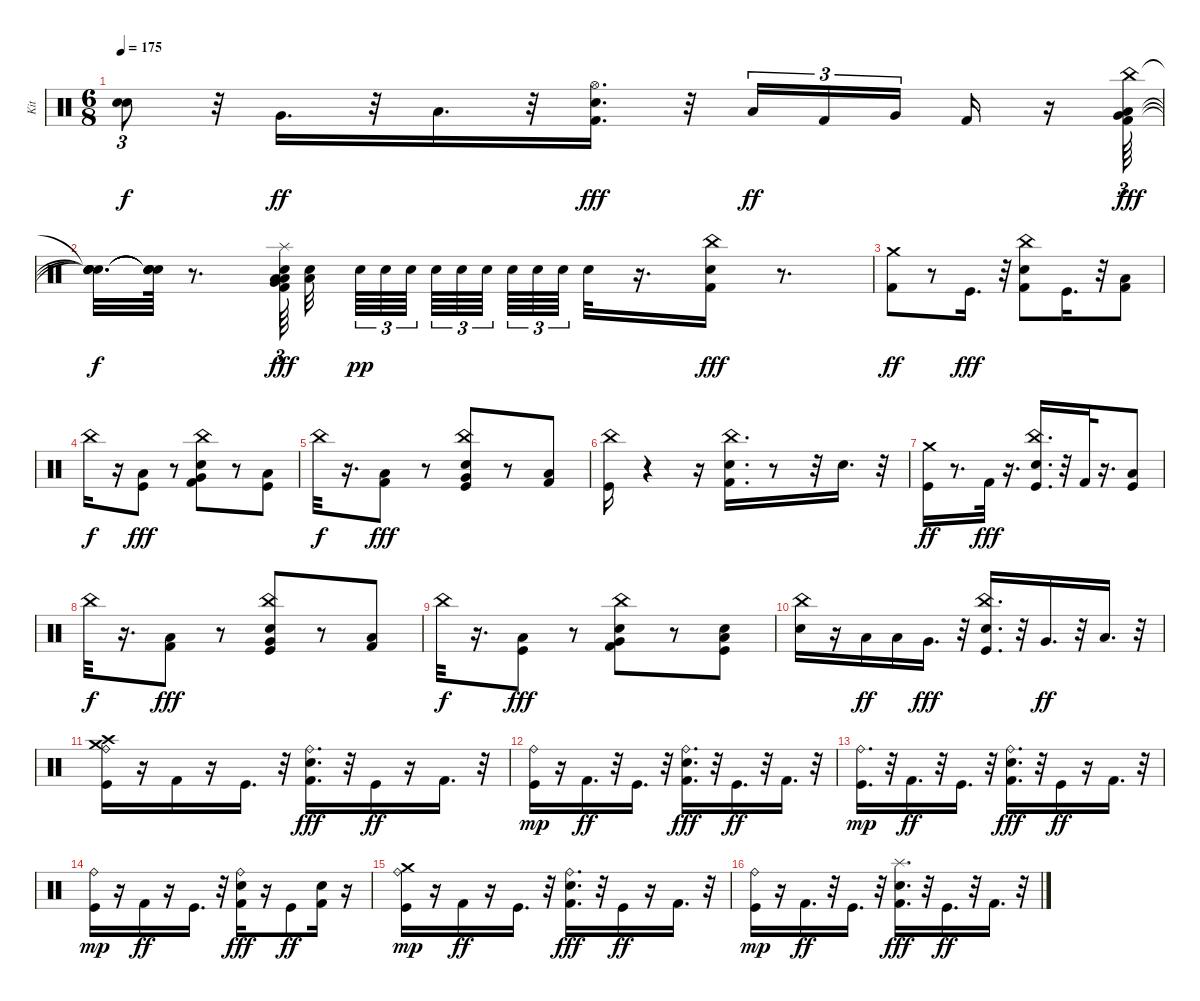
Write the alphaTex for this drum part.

\track ("Kit" "Kit") {instrument percussion}
\staff {score}
\articulation defaults
\ts (6 8)
\tempo 175
\clef neutral
\ks c
("Snare (hit)"{t} "Snare (hit)"{t}).8{tu (3 2) dy f} r.32 "Very Low Tom (hit)".16{d dy ff} r.32 "Low Floor Tom (hit)".16{d} r.32 ("Kick (hit) 2" "Snare (hit) 2" "Hi-Hat (open)").16{d dy fff} r.32 "Low Tom (hit)".16{tu (3 2) dy ff} "Kick (hit) 2".16{tu (3 2)} "Very Low Tom (hit)".16{tu (3 2) beam splitsecondary} "Kick (hit) 2".16 r.16 ("Kick (hit) 2" "Low Floor Tom (hit)" "Very Low Tom (hit)" "China (hit)").64{tu (3 2) dy fff} |
("Snare (hit)"{t} "Snare (hit)"{t} "Snare (hit)"{t} "Snare (hit)"{t}).32{d dy f} ("Snare (hit)"{t} "Snare (hit)"{t} "Snare (hit)"{t} "Snare (hit)"{t}).64 r.8{d} ("Kick (hit) 2" "Snare (hit) 2" "Low Floor Tom (hit)" "Low Floor Tom (hit)" "Very Low Tom (hit)" "Splash (hit)").64{tu (3 2) dy fff beam splitsecondary} ("Snare (hit) 2" "Low Floor Tom (hit)").32{beam splitsecondary} "Snare (hit) 2".64{tu (3 2) dy pp} "Snare (hit) 2".64{tu (3 2)} "Snare (hit) 2".64{tu (3 2) beam splitsecondary} "Snare (hit) 2".64{tu (3 2)} "Snare (hit) 2".64{tu (3 2)} "Snare (hit) 2".64{tu (3 2) beam splitsecondary} "Snare (hit) 2".64{tu (3 2)} "Snare (hit) 2".64{tu (3 2)} "Snare (hit) 2".64{tu (3 2)} "Snare (hit) 2".32 r.16{d} ("Kick (hit) 2" "Snare (hit) 2" "China (hit)").16{dy fff} r.8{d} |
("Kick (hit) 2" "Crash medium (hit)").8{dy ff} r.8 "Kick (hit)".16{d dy fff} r.32 ("Kick (hit) 2" "Snare (hit) 2" "China (hit)").8 "Kick (hit)".16{d} r.32 ("Kick (hit) 2" "Low Floor Tom (hit)").8 |
"China (hit)".16{dy f} r.16 ("Kick (hit)" "Low Floor Tom (hit)").8{dy fff} r.8 ("Kick (hit) 2" "Snare (hit) 2" "Very Low Tom (hit)" "China (hit)").8 r.8 ("Kick (hit)" "Low Floor Tom (hit)").8 |
"China (hit)".32{dy f} r.16{d} ("Kick (hit) 2" "Low Floor Tom (hit)").8{dy fff} r.8 ("Kick (hit)" "Snare (hit) 2" "Very Low Tom (hit)" "China (hit)").8 r.8 ("Kick (hit) 2" "Low Floor Tom (hit)").8 |
("Kick (hit)" "China (hit)").16 r.4 r.16 ("Kick (hit) 2" "Snare (hit) 2" "China (hit)").16{d} r.8 r.32 "Snare (hit) 2".16{d} r.32 |
("Kick (hit)" "Crash medium (hit)").16{dy ff} r.8{d} "Kick (hit) 2".32{dy fff} r.16{d} ("Kick (hit)" "Snare (hit) 2" "China (hit)").16{d} r.32 "Kick (hit) 2".32 r.16{d} ("Kick (hit)" "Low Floor Tom (hit)").8 |
"China (hit)".32{dy f} r.16{d} ("Kick (hit) 2" "Low Floor Tom (hit)").8{dy fff} r.8 ("Kick (hit)" "Snare (hit) 2" "Very Low Tom (hit)" "China (hit)").8 r.8 ("Kick (hit) 2" "Low Floor Tom (hit)").8 |
"China (hit)".32{dy f} r.16{d} ("Kick (hit)" "Low Floor Tom (hit)").8{dy fff} r.8 ("Kick (hit) 2" "Snare (hit) 2" "Very Low Tom (hit)" "China (hit)").8 r.8 ("Kick (hit)" "Snare (hit) 2" "Low Floor Tom (hit)").8 |
("Snare (hit) 2" "China (hit)").16 r.16 "Low Tom (hit)".16{dy ff} "Low Tom (hit)".16 "Very Low Tom (hit)".16{d dy fff} r.32 ("Kick (hit)" "Snare (hit) 2" "China (hit)").16{d} r.32 "Very Low Tom (hit)".16{d dy ff} r.32 "Low Floor Tom (hit)".16{d} r.32 |
("Kick (hit)" "Crash high (hit)" "Ride (bell)" "Crash medium (hit)").16 r.16 "Kick (hit) 2".16 r.16 "Kick (hit)".16{d} r.32 ("Kick (hit) 2" "Snare (hit) 2" "Ride (bell)").16{d dy fff} r.32 "Kick (hit)".16{dy ff} r.16 "Kick (hit) 2".16{d} r.32 |
("Kick (hit)" "Ride (bell)").16{dy mp} r.16 "Kick (hit) 2".16{d dy ff} r.32 "Kick (hit)".16{d} r.32 ("Kick (hit) 2" "Snare (hit) 2" "Ride (bell)").16{d dy fff} r.32 "Kick (hit)".16{d dy ff} r.32 "Kick (hit) 2".16{d} r.32 |
("Kick (hit)" "Ride (bell)").16{d dy mp} r.32 "Kick (hit) 2".16{d dy ff} r.32 "Kick (hit)".16{d} r.32 ("Kick (hit) 2" "Snare (hit) 2" "Ride (bell)").16{d dy fff} r.32 "Kick (hit)".16{dy ff} r.16 "Kick (hit) 2".16{d} r.32 |
("Kick (hit)" "Ride (bell)").16{dy mp} r.16 "Kick (hit) 2".16{dy ff} r.16 "Kick (hit)".16{d} r.32 ("Kick (hit) 2" "Snare (hit) 2" "Ride (bell)").16{dy fff} r.16 "Kick (hit)".8{dy ff} ("Kick (hit) 2" "Snare (hit) 2").16 r.16 |
("Kick (hit)" "Ride (bell)" "Crash medium (hit)").16{dy mp} r.16 "Kick (hit) 2".16{dy ff} r.16 "Kick (hit)".16{d} r.32 ("Kick (hit) 2" "Snare (hit) 2" "Ride (bell)").16{d dy fff} r.32 "Kick (hit)".16{dy ff} r.16 "Kick (hit) 2".16{d} r.32 |
("Kick (hit)" "Ride (bell)").16{dy mp} r.16 "Kick (hit) 2".16{d dy ff} r.32 "Kick (hit)".16{d} r.32 ("Kick (hit) 2" "Snare (hit) 2" "Splash (hit)").16{d dy fff} r.32 "Kick (hit)".16{d dy ff} r.32 "Kick (hit) 2".16{d} r.32
